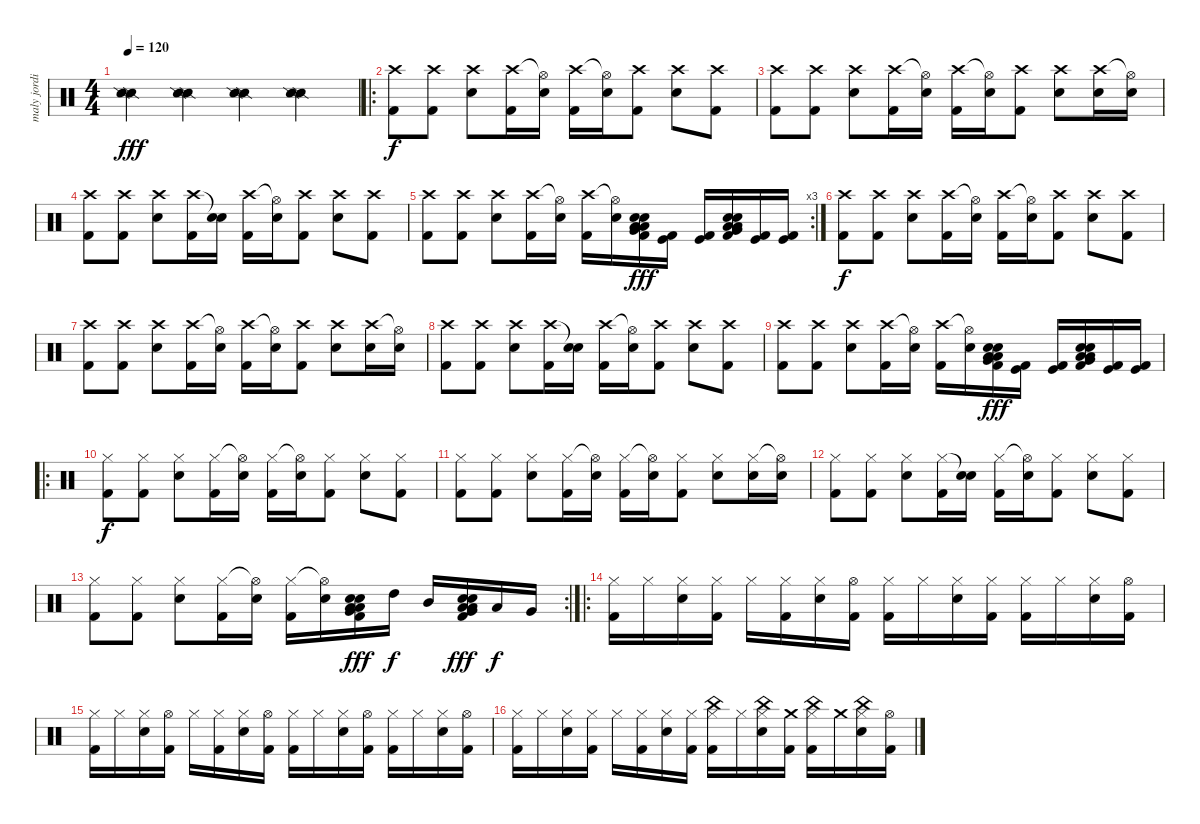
\track ("maly jordison" "maly jordi") {instrument percussion}
\staff {score}
\articulation defaults
\ts (4 4)
\tempo 120
\clef neutral
\ks c
("Snare (side stick) 2" "Snare (side stick) 2").4{dy fff} ("Snare (side stick) 2" "Snare (side stick) 2").4 ("Snare (side stick) 2" "Snare (side stick) 2").4 ("Snare (side stick) 2" "Snare (side stick) 2").4 |
\ro
("Crash high (hit)" "Kick (hit) 2").8{dy f} ("Crash high (hit)" "Kick (hit) 2").8 ("Crash high (hit)" "Electric Snare (hit)").8 ("Crash high (hit)" "Kick (hit) 2").16 ("Hi-Hat (open)"{t} "Electric Snare (hit)").16 ("Crash high (hit)" "Kick (hit) 2").16 ("Hi-Hat (open)"{t} "Electric Snare (hit)").16 ("Crash high (hit)" "Kick (hit) 2").8 ("Crash high (hit)" "Electric Snare (hit)").8 ("Crash high (hit)" "Kick (hit) 2").8 |
("Crash high (hit)" "Kick (hit) 2").8 ("Crash high (hit)" "Kick (hit) 2").8 ("Crash high (hit)" "Electric Snare (hit)").8 ("Crash high (hit)" "Kick (hit) 2").16 ("Hi-Hat (open)"{t} "Electric Snare (hit)").16 ("Crash high (hit)" "Kick (hit) 2").16 ("Hi-Hat (open)"{t} "Electric Snare (hit)").16 ("Crash high (hit)" "Kick (hit) 2").8 ("Crash high (hit)" "Electric Snare (hit)").8 ("Crash high (hit)" "Electric Snare (hit)").16 ("Hi-Hat (open)"{t} "Electric Snare (hit)").16 |
("Crash high (hit)" "Kick (hit) 2").8 ("Crash high (hit)" "Kick (hit) 2").8 ("Crash high (hit)" "Electric Snare (hit)").8 ("Crash high (hit)" "Kick (hit) 2").16 ("Snare (hit)"{t} "Electric Snare (hit)").16 ("Crash high (hit)" "Kick (hit) 2").16 ("Hi-Hat (open)"{t} "Electric Snare (hit)").16 ("Crash high (hit)" "Kick (hit) 2").8 ("Crash high (hit)" "Electric Snare (hit)").8 ("Crash high (hit)" "Kick (hit) 2").8 |
\rc 3
("Crash high (hit)" "Kick (hit) 2").8 ("Crash high (hit)" "Kick (hit) 2").8 ("Crash high (hit)" "Electric Snare (hit)").8 ("Crash high (hit)" "Kick (hit) 2").16 ("Hi-Hat (open)"{t} "Electric Snare (hit)").16 ("Crash high (hit)" "Kick (hit) 2").16 ("Hi-Hat (open)"{t} "Electric Snare (hit)").16 ("Kick (hit) 2" "Very Low Tom (hit)" "Low Floor Tom (hit)" "Low Floor Tom (hit)" "Electric Snare (hit)" "Electric Snare (hit)").16{dy fff} ("Kick (hit)" "Kick (hit) 2").16 ("Kick (hit)" "Kick (hit) 2").16 ("Kick (hit) 2" "Very Low Tom (hit)" "Low Floor Tom (hit)" "Low Floor Tom (hit)" "Electric Snare (hit)" "Electric Snare (hit)").16 ("Kick (hit)" "Kick (hit) 2").16 ("Kick (hit)" "Kick (hit) 2").16 |
("Crash high (hit)" "Kick (hit) 2").8{dy f} ("Crash high (hit)" "Kick (hit) 2").8 ("Crash high (hit)" "Electric Snare (hit)").8 ("Crash high (hit)" "Kick (hit) 2").16 ("Hi-Hat (open)"{t} "Electric Snare (hit)").16 ("Crash high (hit)" "Kick (hit) 2").16 ("Hi-Hat (open)"{t} "Electric Snare (hit)").16 ("Crash high (hit)" "Kick (hit) 2").8 ("Crash high (hit)" "Electric Snare (hit)").8 ("Crash high (hit)" "Kick (hit) 2").8 |
("Crash high (hit)" "Kick (hit) 2").8 ("Crash high (hit)" "Kick (hit) 2").8 ("Crash high (hit)" "Electric Snare (hit)").8 ("Crash high (hit)" "Kick (hit) 2").16 ("Hi-Hat (open)"{t} "Electric Snare (hit)").16 ("Crash high (hit)" "Kick (hit) 2").16 ("Hi-Hat (open)"{t} "Electric Snare (hit)").16 ("Crash high (hit)" "Kick (hit) 2").8 ("Crash high (hit)" "Electric Snare (hit)").8 ("Crash high (hit)" "Electric Snare (hit)").16 ("Hi-Hat (open)"{t} "Electric Snare (hit)").16 |
("Crash high (hit)" "Kick (hit) 2").8 ("Crash high (hit)" "Kick (hit) 2").8 ("Crash high (hit)" "Electric Snare (hit)").8 ("Crash high (hit)" "Kick (hit) 2").16 ("Snare (hit)"{t} "Electric Snare (hit)").16 ("Crash high (hit)" "Kick (hit) 2").16 ("Hi-Hat (open)"{t} "Electric Snare (hit)").16 ("Crash high (hit)" "Kick (hit) 2").8 ("Crash high (hit)" "Electric Snare (hit)").8 ("Crash high (hit)" "Kick (hit) 2").8 |
("Crash high (hit)" "Kick (hit) 2").8 ("Crash high (hit)" "Kick (hit) 2").8 ("Crash high (hit)" "Electric Snare (hit)").8 ("Crash high (hit)" "Kick (hit) 2").16 ("Hi-Hat (open)"{t} "Electric Snare (hit)").16 ("Crash high (hit)" "Kick (hit) 2").16 ("Hi-Hat (open)"{t} "Electric Snare (hit)").16 ("Kick (hit) 2" "Very Low Tom (hit)" "Low Floor Tom (hit)" "Low Floor Tom (hit)" "Electric Snare (hit)" "Electric Snare (hit)").16{dy fff} ("Kick (hit)" "Kick (hit) 2").16 ("Kick (hit)" "Kick (hit) 2").16 ("Kick (hit) 2" "Very Low Tom (hit)" "Low Floor Tom (hit)" "Low Floor Tom (hit)" "Electric Snare (hit)" "Electric Snare (hit)").16 ("Kick (hit)" "Kick (hit) 2").16 ("Kick (hit)" "Kick (hit) 2").16 |
\ro
("Hi-Hat (closed)" "Kick (hit) 2").8{dy f} ("Hi-Hat (closed)" "Kick (hit) 2").8 ("Hi-Hat (closed)" "Electric Snare (hit)").8 ("Hi-Hat (closed)" "Kick (hit) 2").16 ("Hi-Hat (open)"{t} "Electric Snare (hit)").16 ("Hi-Hat (closed)" "Kick (hit) 2").16 ("Hi-Hat (open)"{t} "Electric Snare (hit)").16 ("Hi-Hat (closed)" "Kick (hit) 2").8 ("Hi-Hat (closed)" "Electric Snare (hit)").8 ("Hi-Hat (closed)" "Kick (hit) 2").8 |
("Hi-Hat (closed)" "Kick (hit) 2").8 ("Hi-Hat (closed)" "Kick (hit) 2").8 ("Hi-Hat (closed)" "Electric Snare (hit)").8 ("Hi-Hat (closed)" "Kick (hit) 2").16 ("Hi-Hat (open)"{t} "Electric Snare (hit)").16 ("Hi-Hat (closed)" "Kick (hit) 2").16 ("Hi-Hat (open)"{t} "Electric Snare (hit)").16 ("Hi-Hat (closed)" "Kick (hit) 2").8 ("Hi-Hat (closed)" "Electric Snare (hit)").8 ("Hi-Hat (closed)" "Electric Snare (hit)").16 ("Hi-Hat (open)"{t} "Electric Snare (hit)").16 |
("Hi-Hat (closed)" "Kick (hit) 2").8 ("Hi-Hat (closed)" "Kick (hit) 2").8 ("Hi-Hat (closed)" "Electric Snare (hit)").8 ("Hi-Hat (closed)" "Kick (hit) 2").16 ("Snare (hit)"{t} "Electric Snare (hit)").16 ("Hi-Hat (closed)" "Kick (hit) 2").16 ("Hi-Hat (open)"{t} "Electric Snare (hit)").16 ("Hi-Hat (closed)" "Kick (hit) 2").8 ("Hi-Hat (closed)" "Electric Snare (hit)").8 ("Hi-Hat (closed)" "Kick (hit) 2").8 |
\rc 2
("Hi-Hat (closed)" "Kick (hit) 2").8 ("Hi-Hat (closed)" "Kick (hit) 2").8 ("Hi-Hat (closed)" "Electric Snare (hit)").8 ("Hi-Hat (closed)" "Kick (hit) 2").16 ("Hi-Hat (open)"{t} "Electric Snare (hit)").16 ("Hi-Hat (closed)" "Kick (hit) 2").16 ("Hi-Hat (open)"{t} "Electric Snare (hit)").16 ("Kick (hit) 2" "Very Low Tom (hit)" "Low Floor Tom (hit)" "Low Floor Tom (hit)" "Electric Snare (hit)" "Electric Snare (hit)").16{dy fff} "High Tom (hit)".16{dy f} "Mid Tom (hit)".16 ("Kick (hit) 2" "Very Low Tom (hit)" "Low Floor Tom (hit)" "Low Floor Tom (hit)" "Electric Snare (hit)" "Electric Snare (hit)").16{dy fff} "Low Tom (hit)".16{dy f} "Very Low Tom (hit)".16 |
\ro
("Hi-Hat (closed)" "Kick (hit) 2").16 "Hi-Hat (closed)".16 ("Hi-Hat (closed)" "Electric Snare (hit)").16 ("Hi-Hat (closed)" "Kick (hit) 2").16 "Hi-Hat (closed)".16 ("Hi-Hat (closed)" "Kick (hit) 2").16 ("Hi-Hat (closed)" "Electric Snare (hit)").16 ("Hi-Hat (open)" "Kick (hit) 2").16 ("Hi-Hat (closed)" "Kick (hit) 2").16 "Hi-Hat (closed)".16 ("Hi-Hat (closed)" "Electric Snare (hit)").16 ("Hi-Hat (closed)" "Kick (hit) 2").16 ("Hi-Hat (closed)" "Kick (hit) 2").16 "Hi-Hat (closed)".16 ("Hi-Hat (closed)" "Electric Snare (hit)").16 ("Hi-Hat (open)" "Kick (hit) 2").16 |
("Hi-Hat (closed)" "Kick (hit) 2").16 "Hi-Hat (closed)".16 ("Hi-Hat (closed)" "Electric Snare (hit)").16 ("Hi-Hat (open)" "Kick (hit) 2").16 "Hi-Hat (closed)".16 ("Hi-Hat (closed)" "Kick (hit) 2").16 ("Hi-Hat (closed)" "Electric Snare (hit)").16 ("Hi-Hat (open)" "Kick (hit) 2").16 ("Hi-Hat (closed)" "Kick (hit) 2").16 "Hi-Hat (closed)".16 ("Hi-Hat (closed)" "Electric Snare (hit)").16 ("Hi-Hat (open)" "Kick (hit) 2").16 ("Hi-Hat (closed)" "Kick (hit) 2").16 "Hi-Hat (closed)".16 ("Hi-Hat (closed)" "Electric Snare (hit)").16 ("Hi-Hat (open)" "Kick (hit) 2").16 |
("Hi-Hat (closed)" "Kick (hit) 2").16 "Hi-Hat (closed)".16 ("Hi-Hat (closed)" "Electric Snare (hit)").16 ("Hi-Hat (closed)" "Kick (hit) 2").16 "Hi-Hat (closed)".16 ("Hi-Hat (closed)" "Kick (hit) 2").16 ("Hi-Hat (closed)" "Electric Snare (hit)").16 ("Hi-Hat (closed)" "Kick (hit) 2").16 ("Hi-Hat (closed)" "China (hit)" "Kick (hit) 2").16 "Hi-Hat (closed)".16 ("Hi-Hat (closed)" "China (hit)" "Electric Snare (hit)").16 ("Crash medium (hit)" "Kick (hit) 2").16 ("Hi-Hat (closed)" "China (hit)" "Kick (hit) 2").16 "Crash medium (hit)".16 ("Hi-Hat (closed)" "China (hit)" "Electric Snare (hit)").16 ("Hi-Hat (open)" "Kick (hit) 2").16
